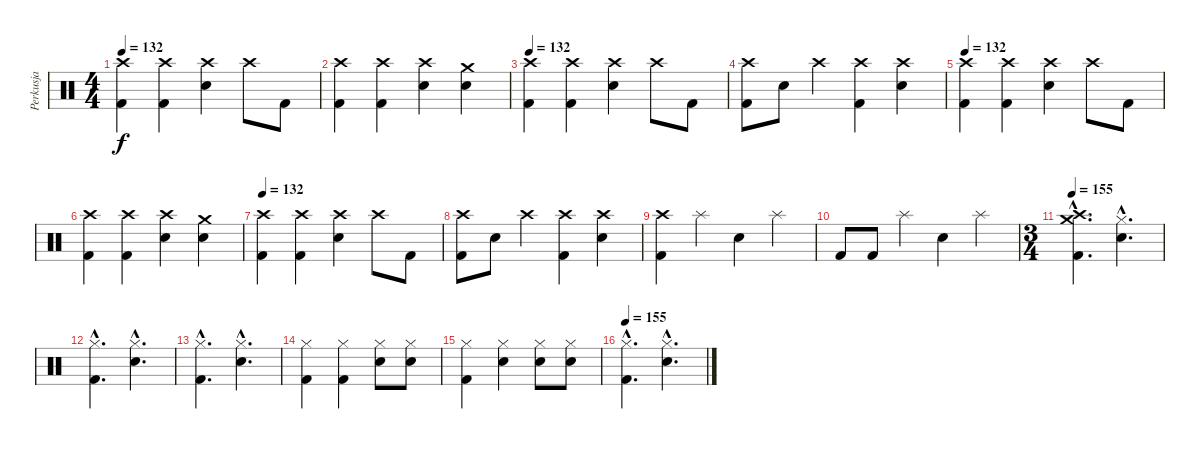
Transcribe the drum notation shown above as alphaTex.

\track ("Perkusja" "Perkusja") {instrument percussion}
\staff {score}
\articulation defaults
\ts (4 4)
\tempo 132
\clef neutral
\ks c
("Crash high (hit)" "Kick (hit) 2").4{dy f} ("Crash high (hit)" "Kick (hit) 2").4 ("Crash high (hit)" "Snare (hit) 2").4 "Crash high (hit)".8 "Kick (hit) 2".8 |
("Crash high (hit)" "Kick (hit) 2").4 ("Crash high (hit)" "Kick (hit) 2").4 ("Crash high (hit)" "Snare (hit) 2").4 ("Crash medium (hit)" "Snare (hit) 2").4 |
\tempo 132
("Crash high (hit)" "Kick (hit) 2").4 ("Crash high (hit)" "Kick (hit) 2").4 ("Crash high (hit)" "Snare (hit) 2").4 "Crash high (hit)".8 "Kick (hit) 2".8 |
("Crash high (hit)" "Kick (hit) 2").8 "Snare (hit) 2".8 "Crash high (hit)".4 ("Crash high (hit)" "Kick (hit) 2").4 ("Crash high (hit)" "Snare (hit) 2").4 |
\tempo 132
("Crash high (hit)" "Kick (hit) 2").4 ("Crash high (hit)" "Kick (hit) 2").4 ("Crash high (hit)" "Snare (hit) 2").4 "Crash high (hit)".8 "Kick (hit) 2".8 |
("Crash high (hit)" "Kick (hit) 2").4 ("Crash high (hit)" "Kick (hit) 2").4 ("Crash high (hit)" "Snare (hit) 2").4 ("Crash medium (hit)" "Snare (hit) 2").4 |
\tempo 132
("Crash high (hit)" "Kick (hit) 2").4 ("Crash high (hit)" "Kick (hit) 2").4 ("Crash high (hit)" "Snare (hit) 2").4 "Crash high (hit)".8 "Kick (hit) 2".8 |
("Crash high (hit)" "Kick (hit) 2").8 "Snare (hit) 2".8 "Crash high (hit)".4 ("Crash high (hit)" "Kick (hit) 2").4 ("Crash high (hit)" "Snare (hit) 2").4 |
("Crash high (hit)" "Kick (hit) 2").4 "Splash (hit)".4 "Snare (hit) 2".4 "Splash (hit)".4 |
"Kick (hit) 2".8 "Kick (hit) 2".8 "Splash (hit)".4 "Snare (hit) 2".4 "Splash (hit)".4 |
\ts (3 4)
\tempo 156
\tempo 155
("Crash high (hit)"{hac} "Crash medium (hit)"{hac} "Kick (hit) 2"{hac}).4{d} ("Hi-Hat (closed)"{hac} "Snare (hit) 2"{hac}).4{d} |
("Hi-Hat (closed)"{hac} "Kick (hit) 2"{hac}).4{d} ("Hi-Hat (closed)"{hac} "Snare (hit) 2"{hac}).4{d} |
("Hi-Hat (closed)"{hac} "Kick (hit) 2"{hac}).4{d} ("Hi-Hat (closed)"{hac} "Snare (hit) 2"{hac}).4{d} |
("Hi-Hat (closed)" "Kick (hit) 2").4 ("Hi-Hat (closed)" "Kick (hit) 2").4 ("Hi-Hat (closed)" "Snare (hit) 2").8 ("Hi-Hat (closed)" "Snare (hit) 2").8 |
("Hi-Hat (closed)" "Kick (hit) 2").4 ("Hi-Hat (closed)" "Snare (hit) 2").4 ("Hi-Hat (closed)" "Snare (hit) 2").8 ("Hi-Hat (closed)" "Snare (hit) 2").8 |
\tempo 155
("Hi-Hat (closed)"{hac} "Kick (hit) 2"{hac}).4{d} ("Hi-Hat (closed)"{hac} "Snare (hit) 2"{hac}).4{d}
